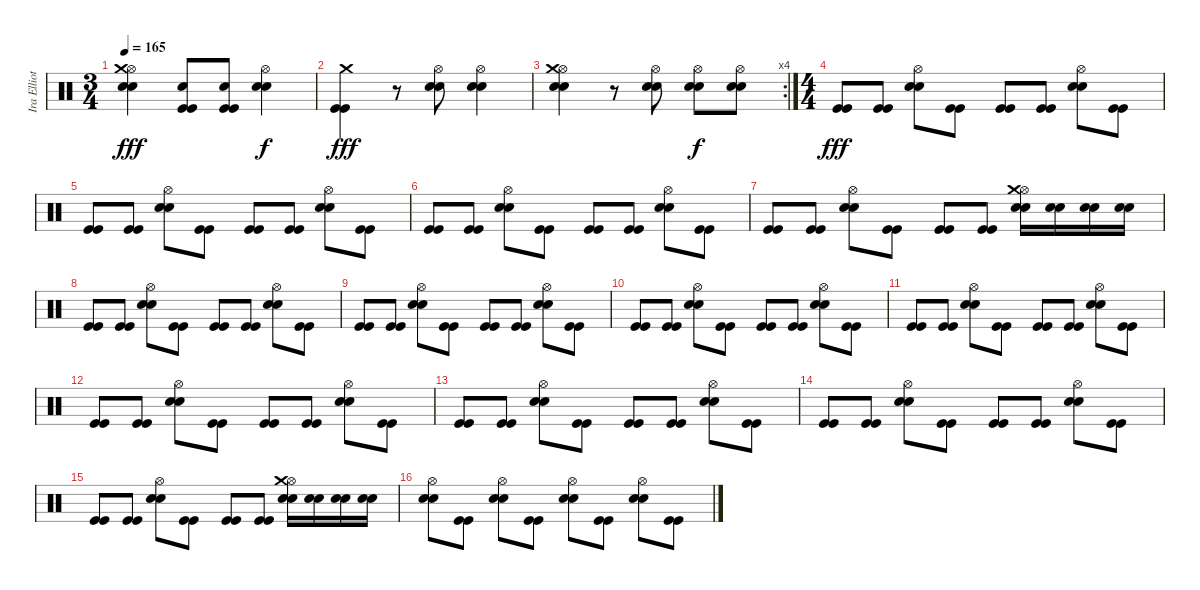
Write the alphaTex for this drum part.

\track ("Ira Elliott (drums)" "Ira Elliot") {instrument percussion}
\staff {score}
\articulation defaults
\ts (3 4)
\tempo 165
\clef neutral
\ks c
("Snare (hit) 2" "Electric Snare (hit)" "Hi-Hat (open)" "Crash medium (hit)").4{dy fff} ("Kick (hit)" "Kick (hit)" "Electric Snare (hit)").8 ("Kick (hit)" "Kick (hit)" "Electric Snare (hit)").8 ("Snare (hit) 2" "Hi-Hat (open)" "Electric Snare (hit)").4{dy f} |
("Kick (hit)" "Kick (hit)" "Crash medium (hit)").4{dy fff} r.8 ("Snare (hit) 2" "Electric Snare (hit)" "Hi-Hat (open)").8 ("Snare (hit) 2" "Electric Snare (hit)" "Hi-Hat (open)").4 |
\rc 4
("Snare (hit) 2" "Electric Snare (hit)" "Hi-Hat (open)" "Crash medium (hit)").4 r.8 ("Snare (hit) 2" "Electric Snare (hit)" "Hi-Hat (open)").8 ("Snare (hit) 2" "Electric Snare (hit)" "Hi-Hat (open)").8{dy f} ("Snare (hit) 2" "Electric Snare (hit)" "Hi-Hat (open)").8 |
\ts (4 4)
("Kick (hit)" "Kick (hit)").8{dy fff} ("Kick (hit)" "Kick (hit)").8 ("Snare (hit) 2" "Electric Snare (hit)" "Hi-Hat (open)").8 ("Kick (hit)" "Kick (hit)").8 ("Kick (hit)" "Kick (hit)").8 ("Kick (hit)" "Kick (hit)").8 ("Snare (hit) 2" "Electric Snare (hit)" "Hi-Hat (open)").8 ("Kick (hit)" "Kick (hit)").8 |
("Kick (hit)" "Kick (hit)").8 ("Kick (hit)" "Kick (hit)").8 ("Snare (hit) 2" "Electric Snare (hit)" "Hi-Hat (open)").8 ("Kick (hit)" "Kick (hit)").8 ("Kick (hit)" "Kick (hit)").8 ("Kick (hit)" "Kick (hit)").8 ("Snare (hit) 2" "Electric Snare (hit)" "Hi-Hat (open)").8 ("Kick (hit)" "Kick (hit)").8 |
("Kick (hit)" "Kick (hit)").8 ("Kick (hit)" "Kick (hit)").8 ("Snare (hit) 2" "Electric Snare (hit)" "Hi-Hat (open)").8 ("Kick (hit)" "Kick (hit)").8 ("Kick (hit)" "Kick (hit)").8 ("Kick (hit)" "Kick (hit)").8 ("Snare (hit) 2" "Electric Snare (hit)" "Hi-Hat (open)").8 ("Kick (hit)" "Kick (hit)").8 |
("Kick (hit)" "Kick (hit)").8 ("Kick (hit)" "Kick (hit)").8 ("Snare (hit) 2" "Electric Snare (hit)" "Hi-Hat (open)").8 ("Kick (hit)" "Kick (hit)").8 ("Kick (hit)" "Kick (hit)").8 ("Kick (hit)" "Kick (hit)").8 ("Snare (hit) 2" "Electric Snare (hit)" "Hi-Hat (open)" "Crash medium (hit)").16 ("Snare (hit) 2" "Electric Snare (hit)").16 ("Snare (hit) 2" "Electric Snare (hit)").16 ("Snare (hit) 2" "Electric Snare (hit)").16 |
("Kick (hit)" "Kick (hit)").8 ("Kick (hit)" "Kick (hit)").8 ("Snare (hit) 2" "Electric Snare (hit)" "Hi-Hat (open)").8 ("Kick (hit)" "Kick (hit)").8 ("Kick (hit)" "Kick (hit)").8 ("Kick (hit)" "Kick (hit)").8 ("Snare (hit) 2" "Electric Snare (hit)" "Hi-Hat (open)").8 ("Kick (hit)" "Kick (hit)").8 |
("Kick (hit)" "Kick (hit)").8 ("Kick (hit)" "Kick (hit)").8 ("Snare (hit) 2" "Electric Snare (hit)" "Hi-Hat (open)").8 ("Kick (hit)" "Kick (hit)").8 ("Kick (hit)" "Kick (hit)").8 ("Kick (hit)" "Kick (hit)").8 ("Snare (hit) 2" "Electric Snare (hit)" "Hi-Hat (open)").8 ("Kick (hit)" "Kick (hit)").8 |
("Kick (hit)" "Kick (hit)").8 ("Kick (hit)" "Kick (hit)").8 ("Snare (hit) 2" "Electric Snare (hit)" "Hi-Hat (open)").8 ("Kick (hit)" "Kick (hit)").8 ("Kick (hit)" "Kick (hit)").8 ("Kick (hit)" "Kick (hit)").8 ("Snare (hit) 2" "Electric Snare (hit)" "Hi-Hat (open)").8 ("Kick (hit)" "Kick (hit)").8 |
("Kick (hit)" "Kick (hit)").8 ("Kick (hit)" "Kick (hit)").8 ("Snare (hit) 2" "Electric Snare (hit)" "Hi-Hat (open)").8 ("Kick (hit)" "Kick (hit)").8 ("Kick (hit)" "Kick (hit)").8 ("Kick (hit)" "Kick (hit)").8 ("Snare (hit) 2" "Electric Snare (hit)" "Hi-Hat (open)").8 ("Kick (hit)" "Kick (hit)").8 |
("Kick (hit)" "Kick (hit)").8 ("Kick (hit)" "Kick (hit)").8 ("Snare (hit) 2" "Electric Snare (hit)" "Hi-Hat (open)").8 ("Kick (hit)" "Kick (hit)").8 ("Kick (hit)" "Kick (hit)").8 ("Kick (hit)" "Kick (hit)").8 ("Snare (hit) 2" "Electric Snare (hit)" "Hi-Hat (open)").8 ("Kick (hit)" "Kick (hit)").8 |
("Kick (hit)" "Kick (hit)").8 ("Kick (hit)" "Kick (hit)").8 ("Snare (hit) 2" "Electric Snare (hit)" "Hi-Hat (open)").8 ("Kick (hit)" "Kick (hit)").8 ("Kick (hit)" "Kick (hit)").8 ("Kick (hit)" "Kick (hit)").8 ("Snare (hit) 2" "Electric Snare (hit)" "Hi-Hat (open)").8 ("Kick (hit)" "Kick (hit)").8 |
("Kick (hit)" "Kick (hit)").8 ("Kick (hit)" "Kick (hit)").8 ("Snare (hit) 2" "Electric Snare (hit)" "Hi-Hat (open)").8 ("Kick (hit)" "Kick (hit)").8 ("Kick (hit)" "Kick (hit)").8 ("Kick (hit)" "Kick (hit)").8 ("Snare (hit) 2" "Electric Snare (hit)" "Hi-Hat (open)").8 ("Kick (hit)" "Kick (hit)").8 |
("Kick (hit)" "Kick (hit)").8 ("Kick (hit)" "Kick (hit)").8 ("Snare (hit) 2" "Electric Snare (hit)" "Hi-Hat (open)").8 ("Kick (hit)" "Kick (hit)").8 ("Kick (hit)" "Kick (hit)").8 ("Kick (hit)" "Kick (hit)").8 ("Snare (hit) 2" "Electric Snare (hit)" "Hi-Hat (open)" "Crash medium (hit)").16 ("Snare (hit) 2" "Electric Snare (hit)").16 ("Snare (hit) 2" "Electric Snare (hit)").16 ("Snare (hit) 2" "Electric Snare (hit)").16 |
("Snare (hit) 2" "Electric Snare (hit)" "Hi-Hat (open)").8 ("Kick (hit)" "Kick (hit)").8 ("Snare (hit) 2" "Electric Snare (hit)" "Hi-Hat (open)").8 ("Kick (hit)" "Kick (hit)").8 ("Snare (hit) 2" "Electric Snare (hit)" "Hi-Hat (open)").8 ("Kick (hit)" "Kick (hit)").8 ("Snare (hit) 2" "Electric Snare (hit)" "Hi-Hat (open)").8 ("Kick (hit)" "Kick (hit)").8
